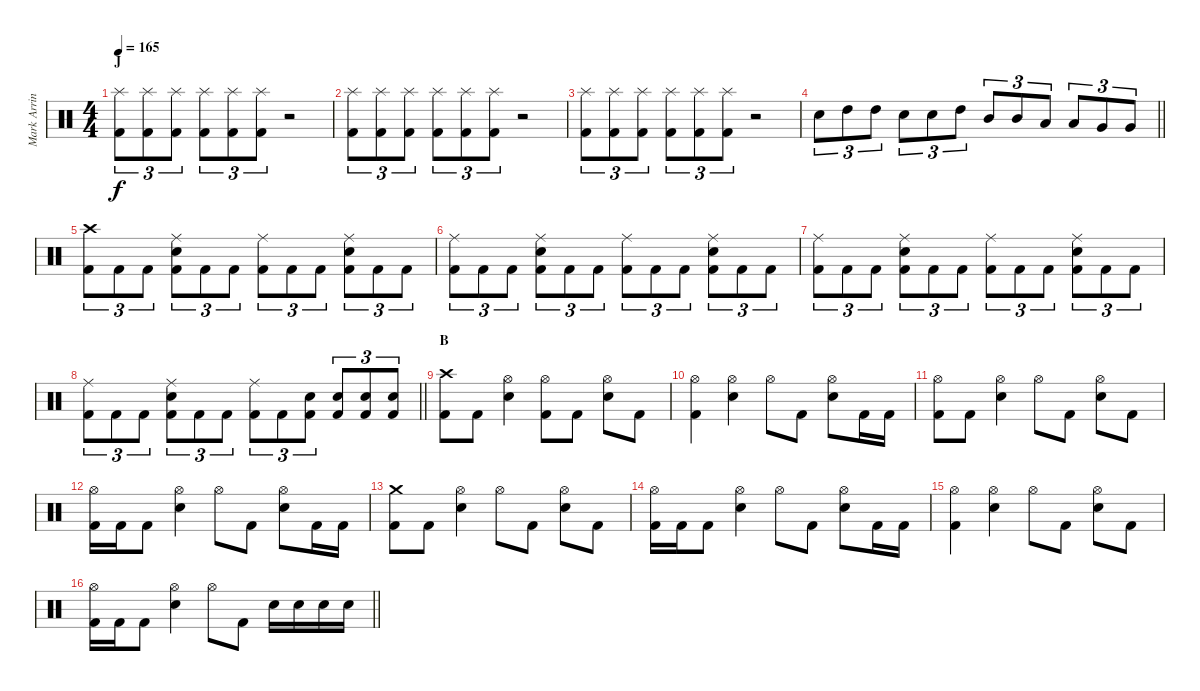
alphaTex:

\track ("Mark Arrington Drums" "Mark Arrin") {instrument percussion}
\staff {score}
\articulation defaults
\ts (4 4)
\section ("" "J")
\tempo 165
\clef neutral
\ks c
("Splash (hit)" "Kick (hit) 2").8{tu (3 2) dy f} ("Splash (hit)" "Kick (hit) 2").8{tu (3 2)} ("Splash (hit)" "Kick (hit) 2").8{tu (3 2)} ("Splash (hit)" "Kick (hit) 2").8{tu (3 2)} ("Splash (hit)" "Kick (hit) 2").8{tu (3 2)} ("Splash (hit)" "Kick (hit) 2").8{tu (3 2)} r.2 |
("Splash (hit)" "Kick (hit) 2").8{tu (3 2)} ("Splash (hit)" "Kick (hit) 2").8{tu (3 2)} ("Splash (hit)" "Kick (hit) 2").8{tu (3 2)} ("Splash (hit)" "Kick (hit) 2").8{tu (3 2)} ("Splash (hit)" "Kick (hit) 2").8{tu (3 2)} ("Splash (hit)" "Kick (hit) 2").8{tu (3 2)} r.2 |
("Splash (hit)" "Kick (hit) 2").8{tu (3 2)} ("Splash (hit)" "Kick (hit) 2").8{tu (3 2)} ("Splash (hit)" "Kick (hit) 2").8{tu (3 2)} ("Splash (hit)" "Kick (hit) 2").8{tu (3 2)} ("Splash (hit)" "Kick (hit) 2").8{tu (3 2)} ("Splash (hit)" "Kick (hit) 2").8{tu (3 2)} r.2 |
\barLineRight lightlight "Electric Snare (hit)".8{tu (3 2)} "High Tom (hit)".8{tu (3 2)} "High Tom (hit)".8{tu (3 2)} "Electric Snare (hit)".8{tu (3 2)} "Electric Snare (hit)".8{tu (3 2)} "High Tom (hit)".8{tu (3 2)} "Mid Tom (hit)".8{tu (3 2)} "Mid Tom (hit)".8{tu (3 2)} "Low Tom (hit)".8{tu (3 2)} "Low Tom (hit)".8{tu (3 2)} "Very Low Tom (hit)".8{tu (3 2)} "Very Low Tom (hit)".8{tu (3 2)}
|
("Crash high (hit)" "Kick (hit) 2").8{tu (3 2)} "Kick (hit) 2".8{tu (3 2)} "Kick (hit) 2".8{tu (3 2)} ("Ride (middle)" "Electric Snare (hit)" "Kick (hit) 2").8{tu (3 2)} "Kick (hit) 2".8{tu (3 2)} "Kick (hit) 2".8{tu (3 2)} ("Ride (middle)" "Kick (hit) 2").8{tu (3 2)} "Kick (hit) 2".8{tu (3 2)} "Kick (hit) 2".8{tu (3 2)} ("Ride (middle)" "Electric Snare (hit)" "Kick (hit) 2").8{tu (3 2)} "Kick (hit) 2".8{tu (3 2)} "Kick (hit) 2".8{tu (3 2)} |
("Ride (middle)" "Kick (hit) 2").8{tu (3 2)} "Kick (hit) 2".8{tu (3 2)} "Kick (hit) 2".8{tu (3 2)} ("Ride (middle)" "Electric Snare (hit)" "Kick (hit) 2").8{tu (3 2)} "Kick (hit) 2".8{tu (3 2)} "Kick (hit) 2".8{tu (3 2)} ("Ride (middle)" "Kick (hit) 2").8{tu (3 2)} "Kick (hit) 2".8{tu (3 2)} "Kick (hit) 2".8{tu (3 2)} ("Ride (middle)" "Electric Snare (hit)" "Kick (hit) 2").8{tu (3 2)} "Kick (hit) 2".8{tu (3 2)} "Kick (hit) 2".8{tu (3 2)} |
("Ride (middle)" "Kick (hit) 2").8{tu (3 2)} "Kick (hit) 2".8{tu (3 2)} "Kick (hit) 2".8{tu (3 2)} ("Ride (middle)" "Electric Snare (hit)" "Kick (hit) 2").8{tu (3 2)} "Kick (hit) 2".8{tu (3 2)} "Kick (hit) 2".8{tu (3 2)} ("Ride (middle)" "Kick (hit) 2").8{tu (3 2)} "Kick (hit) 2".8{tu (3 2)} "Kick (hit) 2".8{tu (3 2)} ("Ride (middle)" "Electric Snare (hit)" "Kick (hit) 2").8{tu (3 2)} "Kick (hit) 2".8{tu (3 2)} "Kick (hit) 2".8{tu (3 2)} |
\barLineRight lightlight
("Ride (middle)" "Kick (hit) 2").8{tu (3 2)} "Kick (hit) 2".8{tu (3 2)} "Kick (hit) 2".8{tu (3 2)} ("Ride (middle)" "Electric Snare (hit)" "Kick (hit) 2").8{tu (3 2)} "Kick (hit) 2".8{tu (3 2)} "Kick (hit) 2".8{tu (3 2)} ("Ride (middle)" "Kick (hit) 2").8{tu (3 2)} "Kick (hit) 2".8{tu (3 2)} ("Electric Snare (hit)" "Kick (hit) 2").8{tu (3 2)} ("Electric Snare (hit)" "Kick (hit) 2").8{tu (3 2)} ("Electric Snare (hit)" "Kick (hit) 2").8{tu (3 2)} ("Electric Snare (hit)" "Kick (hit) 2").8{tu (3 2)} |
\section ("" "B")
("Crash high (hit)" "Kick (hit) 2").8 "Kick (hit) 2".8 ("Hi-Hat (open)" "Electric Snare (hit)").4 ("Hi-Hat (open)" "Kick (hit) 2").8 "Kick (hit) 2".8 ("Hi-Hat (open)" "Electric Snare (hit)").8 "Kick (hit) 2".8 |
("Hi-Hat (open)" "Kick (hit) 2").4 ("Hi-Hat (open)" "Electric Snare (hit)").4 "Hi-Hat (open)".8 "Kick (hit) 2".8 ("Hi-Hat (open)" "Electric Snare (hit)").8 "Kick (hit) 2".16 "Kick (hit) 2".16 |
("Hi-Hat (open)" "Kick (hit) 2").8 "Kick (hit) 2".8 ("Hi-Hat (open)" "Electric Snare (hit)").4 "Hi-Hat (open)".8 "Kick (hit) 2".8 ("Hi-Hat (open)" "Electric Snare (hit)").8 "Kick (hit) 2".8 |
("Hi-Hat (open)" "Kick (hit) 2").16 "Kick (hit) 2".16 "Kick (hit) 2".8 ("Hi-Hat (open)" "Electric Snare (hit)").4 "Hi-Hat (open)".8 "Kick (hit) 2".8 ("Hi-Hat (open)" "Electric Snare (hit)").8 "Kick (hit) 2".16 "Kick (hit) 2".16 |
("Crash medium (hit)" "Kick (hit) 2").8 "Kick (hit) 2".8 ("Hi-Hat (open)" "Electric Snare (hit)").4 "Hi-Hat (open)".8 "Kick (hit) 2".8 ("Hi-Hat (open)" "Electric Snare (hit)").8 "Kick (hit) 2".8 |
("Hi-Hat (open)" "Kick (hit) 2").16 "Kick (hit) 2".16 "Kick (hit) 2".8 ("Hi-Hat (open)" "Electric Snare (hit)").4 "Hi-Hat (open)".8 "Kick (hit) 2".8 ("Hi-Hat (open)" "Electric Snare (hit)").8 "Kick (hit) 2".16 "Kick (hit) 2".16 |
("Hi-Hat (open)" "Kick (hit) 2").4 ("Hi-Hat (open)" "Electric Snare (hit)").4 "Hi-Hat (open)".8 "Kick (hit) 2".8 ("Hi-Hat (open)" "Electric Snare (hit)").8 "Kick (hit) 2".8 |
\barLineRight lightlight
("Hi-Hat (open)" "Kick (hit) 2").16 "Kick (hit) 2".16 "Kick (hit) 2".8 ("Hi-Hat (open)" "Electric Snare (hit)").4 "Hi-Hat (open)".8 "Kick (hit) 2".8 "Electric Snare (hit)".16 "Electric Snare (hit)".16 "Electric Snare (hit)".16 "Electric Snare (hit)".16
